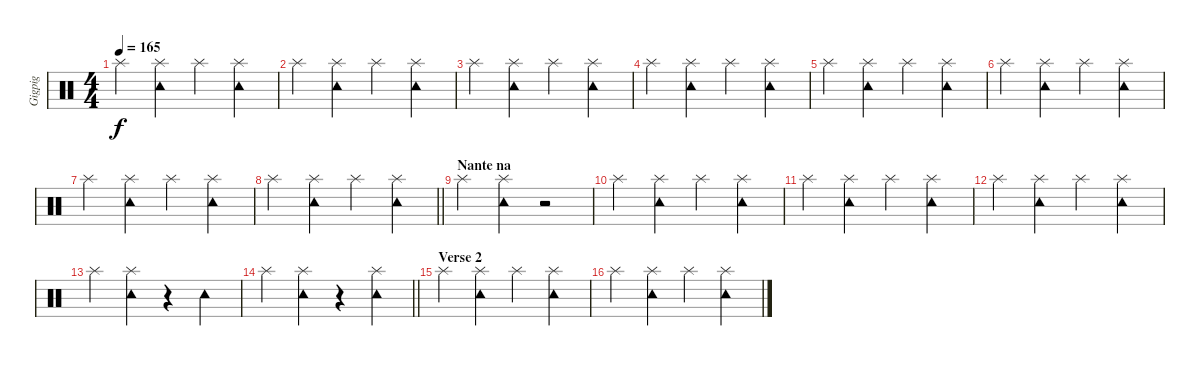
\track ("Gigpig" "Gigpig") {instrument percussion}
\staff {score}
\articulation defaults
\ts (4 4)
\tempo 165
\clef neutral
\ks c "Splash (hit)".4{dy f}
("Splash (hit)" "Tambourine (hit)").4 "Splash (hit)".4 ("Splash (hit)" "Tambourine (hit)").4 |
"Splash (hit)".4 ("Splash (hit)" "Tambourine (hit)").4 "Splash (hit)".4 ("Splash (hit)" "Tambourine (hit)").4 |
"Splash (hit)".4 ("Splash (hit)" "Tambourine (hit)").4 "Splash (hit)".4 ("Splash (hit)" "Tambourine (hit)").4 |
"Splash (hit)".4 ("Splash (hit)" "Tambourine (hit)").4 "Splash (hit)".4 ("Splash (hit)" "Tambourine (hit)").4 |
"Splash (hit)".4 ("Splash (hit)" "Tambourine (hit)").4 "Splash (hit)".4 ("Splash (hit)" "Tambourine (hit)").4 |
"Splash (hit)".4 ("Splash (hit)" "Tambourine (hit)").4 "Splash (hit)".4 ("Splash (hit)" "Tambourine (hit)").4 |
"Splash (hit)".4 ("Splash (hit)" "Tambourine (hit)").4 "Splash (hit)".4 ("Splash (hit)" "Tambourine (hit)").4 |
\barLineRight lightlight "Splash (hit)".4
("Splash (hit)" "Tambourine (hit)").4 "Splash (hit)".4 ("Splash (hit)" "Tambourine (hit)").4 |
\section ("" "Nante na")
"Splash (hit)".4 ("Splash (hit)" "Tambourine (hit)").4 r.2 |
"Splash (hit)".4 ("Splash (hit)" "Tambourine (hit)").4 "Splash (hit)".4 ("Splash (hit)" "Tambourine (hit)").4 |
"Splash (hit)".4 ("Splash (hit)" "Tambourine (hit)").4 "Splash (hit)".4 ("Splash (hit)" "Tambourine (hit)").4 |
"Splash (hit)".4 ("Splash (hit)" "Tambourine (hit)").4 "Splash (hit)".4 ("Splash (hit)" "Tambourine (hit)").4 |
"Splash (hit)".4 ("Splash (hit)" "Tambourine (hit)").4 r.4 "Tambourine (hit)".4 |
\barLineRight lightlight "Splash (hit)".4
("Splash (hit)" "Tambourine (hit)").4 r.4 ("Splash (hit)" "Tambourine (hit)").4 |
\section ("" "Verse 2")
"Splash (hit)".4 ("Splash (hit)" "Tambourine (hit)").4 "Splash (hit)".4 ("Splash (hit)" "Tambourine (hit)").4 |
"Splash (hit)".4 ("Splash (hit)" "Tambourine (hit)").4 "Splash (hit)".4 ("Splash (hit)" "Tambourine (hit)").4
